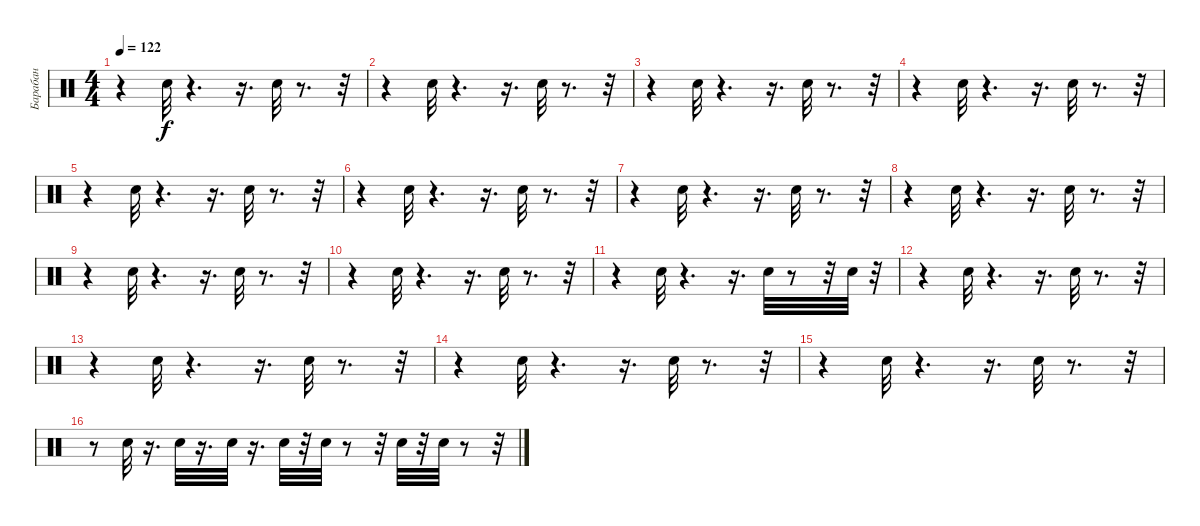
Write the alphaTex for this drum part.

\track ("Барабан" "Барабан") {instrument percussion}
\staff {score}
\articulation defaults
\ts (4 4)
\tempo 122
\clef neutral
\ks c
r.4{dy f} "Snare (hit) 2".32 r.4{d} r.16{d} "Snare (hit) 2".32 r.8{d} r.32 |
r.4 "Snare (hit) 2".32 r.4{d} r.16{d} "Snare (hit) 2".32 r.8{d} r.32 |
r.4 "Snare (hit) 2".32 r.4{d} r.16{d} "Snare (hit) 2".32 r.8{d} r.32 |
r.4 "Snare (hit) 2".32 r.4{d} r.16{d} "Snare (hit) 2".32 r.8{d} r.32 |
r.4 "Snare (hit) 2".32 r.4{d} r.16{d} "Snare (hit) 2".32 r.8{d} r.32 |
r.4 "Snare (hit) 2".32 r.4{d} r.16{d} "Snare (hit) 2".32 r.8{d} r.32 |
r.4 "Snare (hit) 2".32 r.4{d} r.16{d} "Snare (hit) 2".32 r.8{d} r.32 |
r.4 "Snare (hit) 2".32 r.4{d} r.16{d} "Snare (hit) 2".32 r.8{d} r.32 |
r.4 "Snare (hit) 2".32 r.4{d} r.16{d} "Snare (hit) 2".32 r.8{d} r.32 |
r.4 "Snare (hit) 2".32 r.4{d} r.16{d} "Snare (hit) 2".32 r.8{d} r.32 |
r.4 "Snare (hit) 2".32 r.4{d} r.16{d} "Snare (hit) 2".32 r.8 r.32 "Snare (hit) 2".32 r.32 |
r.4 "Snare (hit) 2".32 r.4{d} r.16{d} "Snare (hit) 2".32 r.8{d} r.32 |
r.4 "Snare (hit) 2".32 r.4{d} r.16{d} "Snare (hit) 2".32 r.8{d} r.32 |
r.4 "Snare (hit) 2".32 r.4{d} r.16{d} "Snare (hit) 2".32 r.8{d} r.32 |
r.4 "Snare (hit) 2".32 r.4{d} r.16{d} "Snare (hit) 2".32 r.8{d} r.32 |
r.8 "Snare (hit) 2".32 r.16{d} "Snare (hit) 2".32 r.16{d} "Snare (hit) 2".32 r.16{d} "Snare (hit) 2".32 r.32 "Snare (hit) 2".32 r.8 r.32 "Snare (hit) 2".32 r.32 "Snare (hit) 2".32 r.8 r.32
